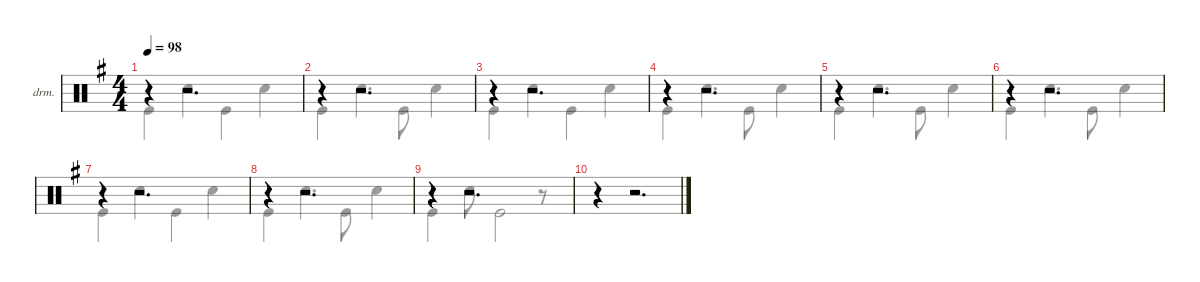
\defaultSystemsLayout 4
\hideDynamics
\bracketExtendMode nobrackets
\firstSystemTrackNameOrientation horizontal
\otherSystemsTrackNameOrientation horizontal
\track ("Percussion" "drm.") {instrument percussion}
\staff {score}
\articulation defaults
\voice
\ts (4 4)
\tempo 98
\clef neutral
\ks eminor
r.4{dy mf} r.2{d} |
r.4 r.2{d} |
r.4 r.2{d} |
r.4 r.2{d} |
r.4 r.2{d} |
r.4 r.2{d} |
r.4 r.2{d} |
r.4 r.2{d} |
r.4 r.2{d} |
r.4 r.2{d}
\voice
\clef neutral
\ottava regular
\simile none
\ks eminor "Kick (hit)"{acc forcenatural}.4{dy mf} "Snare (hit) 2"{acc forcenatural}.4 "Kick (hit)"{acc forcenatural}.4 "Snare (hit) 2"{acc forcenatural}.4
|
"Kick (hit)"{acc forcenatural}.4 "Snare (hit) 2"{acc forcenatural}.4{d} "Kick (hit)"{acc forcenatural}.8 "Snare (hit) 2"{acc forcenatural}.4 |
"Kick (hit)"{acc forcenatural}.4 "Snare (hit) 2"{acc forcenatural}.4 "Kick (hit)"{acc forcenatural}.4 "Snare (hit) 2"{acc forcenatural}.4 |
"Kick (hit)"{acc forcenatural}.4 "Snare (hit) 2"{acc forcenatural}.4{d} "Kick (hit)"{acc forcenatural}.8 "Snare (hit) 2"{acc forcenatural}.4 |
"Kick (hit)"{acc forcenatural}.4 "Snare (hit) 2"{acc forcenatural}.4{d} "Kick (hit)"{acc forcenatural}.8 "Snare (hit) 2"{acc forcenatural}.4 |
"Kick (hit)"{acc forcenatural}.4 "Snare (hit) 2"{acc forcenatural}.4{d} "Kick (hit)"{acc forcenatural}.8 "Snare (hit) 2"{acc forcenatural}.4 |
"Kick (hit)"{acc forcenatural}.4 "Snare (hit) 2"{acc forcenatural}.4 "Kick (hit)"{acc forcenatural}.4 "Snare (hit) 2"{acc forcenatural}.4 |
"Kick (hit)"{acc forcenatural}.4 "Snare (hit) 2"{acc forcenatural}.4{d} "Kick (hit)"{acc forcenatural}.8 "Snare (hit) 2"{acc forcenatural}.4 |
"Kick (hit)"{acc forcenatural}.4 "Snare (hit) 2"{acc forcenatural}.8 "Kick (hit)"{acc forcenatural}.2 r.8 |
